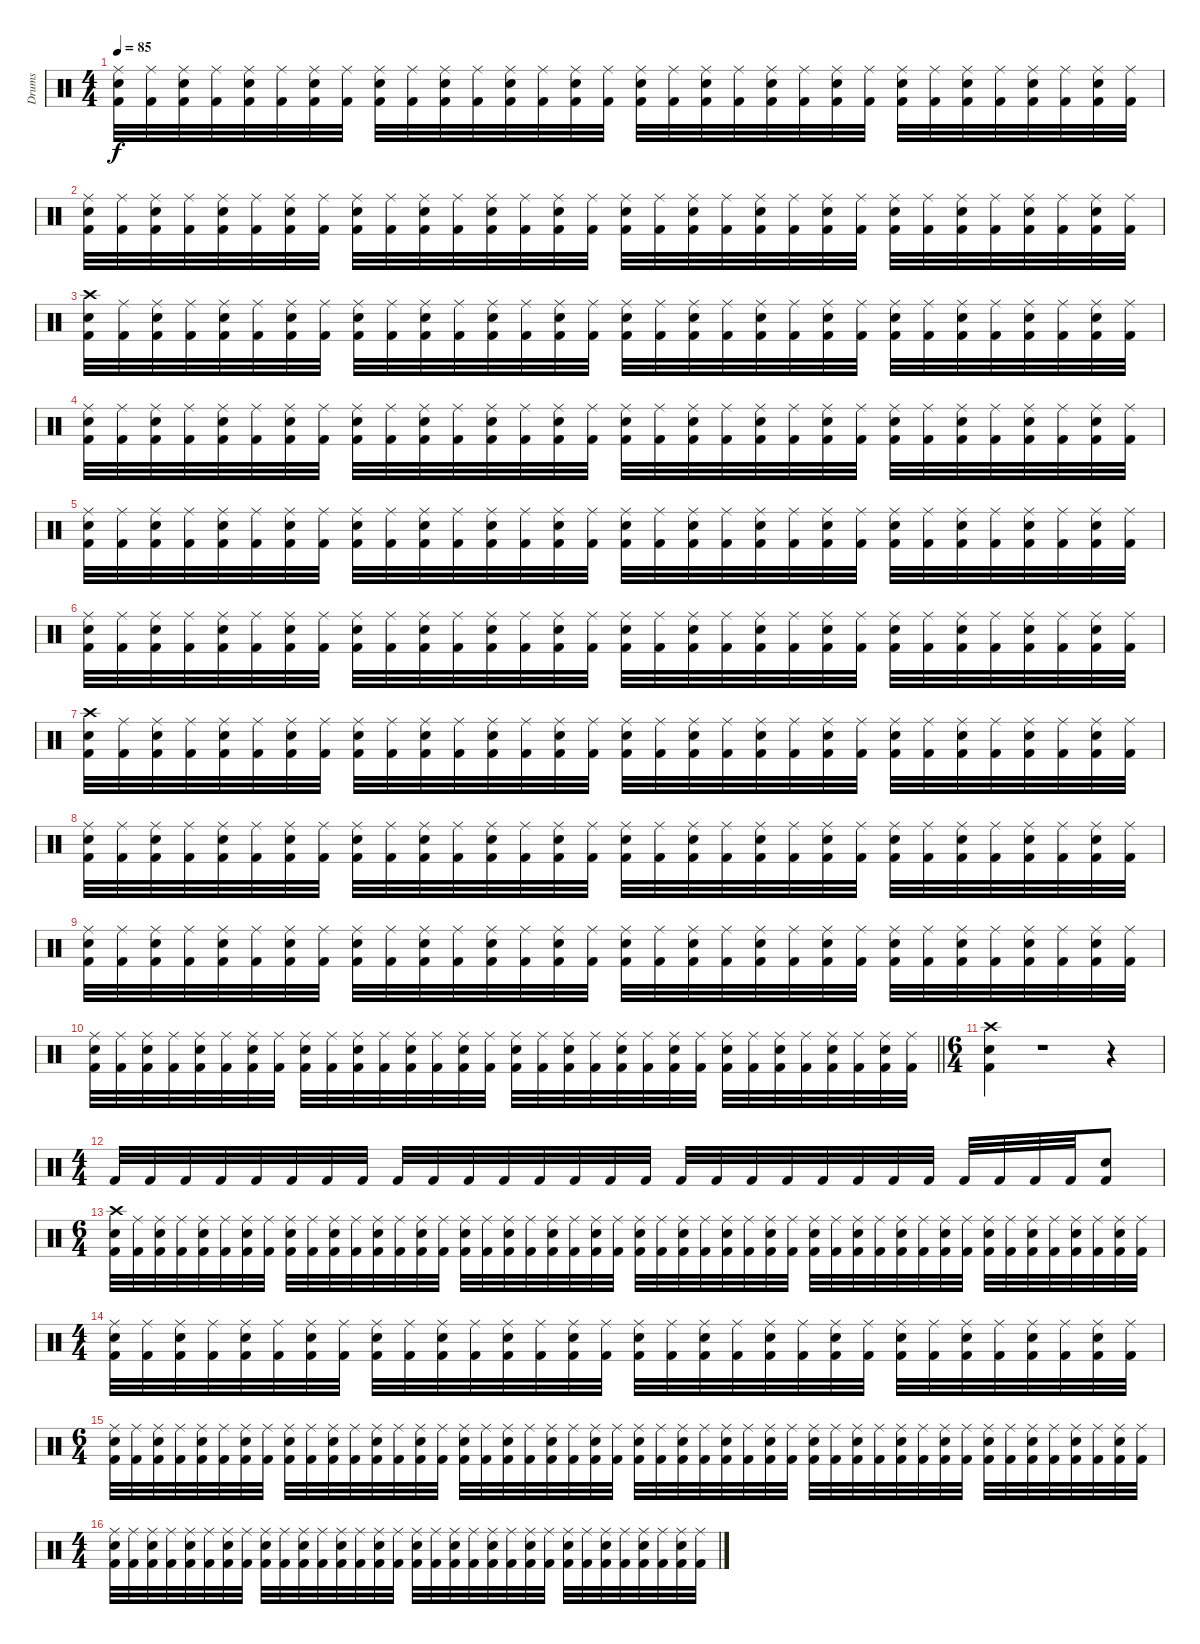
\track ("Drums" "Drums") {instrument percussion}
\staff {score}
\articulation defaults
\ts (4 4)
\tempo 85
\clef neutral
\ks c
("Ride (middle)" "Electric Snare (hit)" "Kick (hit) 2").32{dy f} ("Ride (middle)" "Kick (hit) 2").32 ("Ride (middle)" "Electric Snare (hit)" "Kick (hit) 2").32 ("Ride (middle)" "Kick (hit) 2").32 ("Ride (middle)" "Electric Snare (hit)" "Kick (hit) 2").32 ("Ride (middle)" "Kick (hit) 2").32 ("Ride (middle)" "Electric Snare (hit)" "Kick (hit) 2").32 ("Ride (middle)" "Kick (hit) 2").32 ("Ride (middle)" "Electric Snare (hit)" "Kick (hit) 2").32 ("Ride (middle)" "Kick (hit) 2").32 ("Ride (middle)" "Electric Snare (hit)" "Kick (hit) 2").32 ("Ride (middle)" "Kick (hit) 2").32 ("Ride (middle)" "Electric Snare (hit)" "Kick (hit) 2").32 ("Ride (middle)" "Kick (hit) 2").32 ("Ride (middle)" "Electric Snare (hit)" "Kick (hit) 2").32 ("Ride (middle)" "Kick (hit) 2").32 ("Ride (middle)" "Electric Snare (hit)" "Kick (hit) 2").32 ("Ride (middle)" "Kick (hit) 2").32 ("Ride (middle)" "Electric Snare (hit)" "Kick (hit) 2").32 ("Ride (middle)" "Kick (hit) 2").32 ("Ride (middle)" "Electric Snare (hit)" "Kick (hit) 2").32 ("Ride (middle)" "Kick (hit) 2").32 ("Ride (middle)" "Electric Snare (hit)" "Kick (hit) 2").32 ("Ride (middle)" "Kick (hit) 2").32 ("Ride (middle)" "Electric Snare (hit)" "Kick (hit) 2").32 ("Ride (middle)" "Kick (hit) 2").32 ("Ride (middle)" "Electric Snare (hit)" "Kick (hit) 2").32 ("Ride (middle)" "Kick (hit) 2").32 ("Ride (middle)" "Electric Snare (hit)" "Kick (hit) 2").32 ("Ride (middle)" "Kick (hit) 2").32 ("Ride (middle)" "Electric Snare (hit)" "Kick (hit) 2").32 ("Ride (middle)" "Kick (hit) 2").32 |
("Ride (middle)" "Electric Snare (hit)" "Kick (hit) 2").32 ("Ride (middle)" "Kick (hit) 2").32 ("Ride (middle)" "Electric Snare (hit)" "Kick (hit) 2").32 ("Ride (middle)" "Kick (hit) 2").32 ("Ride (middle)" "Electric Snare (hit)" "Kick (hit) 2").32 ("Ride (middle)" "Kick (hit) 2").32 ("Ride (middle)" "Electric Snare (hit)" "Kick (hit) 2").32 ("Ride (middle)" "Kick (hit) 2").32 ("Ride (middle)" "Electric Snare (hit)" "Kick (hit) 2").32 ("Ride (middle)" "Kick (hit) 2").32 ("Ride (middle)" "Electric Snare (hit)" "Kick (hit) 2").32 ("Ride (middle)" "Kick (hit) 2").32 ("Ride (middle)" "Electric Snare (hit)" "Kick (hit) 2").32 ("Ride (middle)" "Kick (hit) 2").32 ("Ride (middle)" "Electric Snare (hit)" "Kick (hit) 2").32 ("Ride (middle)" "Kick (hit) 2").32 ("Ride (middle)" "Electric Snare (hit)" "Kick (hit) 2").32 ("Ride (middle)" "Kick (hit) 2").32 ("Ride (middle)" "Electric Snare (hit)" "Kick (hit) 2").32 ("Ride (middle)" "Kick (hit) 2").32 ("Ride (middle)" "Electric Snare (hit)" "Kick (hit) 2").32 ("Ride (middle)" "Kick (hit) 2").32 ("Ride (middle)" "Electric Snare (hit)" "Kick (hit) 2").32 ("Ride (middle)" "Kick (hit) 2").32 ("Ride (middle)" "Electric Snare (hit)" "Kick (hit) 2").32 ("Ride (middle)" "Kick (hit) 2").32 ("Ride (middle)" "Electric Snare (hit)" "Kick (hit) 2").32 ("Ride (middle)" "Kick (hit) 2").32 ("Ride (middle)" "Electric Snare (hit)" "Kick (hit) 2").32 ("Ride (middle)" "Kick (hit) 2").32 ("Ride (middle)" "Electric Snare (hit)" "Kick (hit) 2").32 ("Ride (middle)" "Kick (hit) 2").32 |
("Crash high (hit)" "Electric Snare (hit)" "Kick (hit) 2").32 ("Ride (middle)" "Kick (hit) 2").32 ("Ride (middle)" "Electric Snare (hit)" "Kick (hit) 2").32 ("Ride (middle)" "Kick (hit) 2").32 ("Ride (middle)" "Electric Snare (hit)" "Kick (hit) 2").32 ("Ride (middle)" "Kick (hit) 2").32 ("Ride (middle)" "Electric Snare (hit)" "Kick (hit) 2").32 ("Ride (middle)" "Kick (hit) 2").32 ("Ride (middle)" "Electric Snare (hit)" "Kick (hit) 2").32 ("Ride (middle)" "Kick (hit) 2").32 ("Ride (middle)" "Electric Snare (hit)" "Kick (hit) 2").32 ("Ride (middle)" "Kick (hit) 2").32 ("Ride (middle)" "Electric Snare (hit)" "Kick (hit) 2").32 ("Ride (middle)" "Kick (hit) 2").32 ("Ride (middle)" "Electric Snare (hit)" "Kick (hit) 2").32 ("Ride (middle)" "Kick (hit) 2").32 ("Ride (middle)" "Electric Snare (hit)" "Kick (hit) 2").32 ("Ride (middle)" "Kick (hit) 2").32 ("Ride (middle)" "Electric Snare (hit)" "Kick (hit) 2").32 ("Ride (middle)" "Kick (hit) 2").32 ("Ride (middle)" "Electric Snare (hit)" "Kick (hit) 2").32 ("Ride (middle)" "Kick (hit) 2").32 ("Ride (middle)" "Electric Snare (hit)" "Kick (hit) 2").32 ("Ride (middle)" "Kick (hit) 2").32 ("Ride (middle)" "Electric Snare (hit)" "Kick (hit) 2").32 ("Ride (middle)" "Kick (hit) 2").32 ("Ride (middle)" "Electric Snare (hit)" "Kick (hit) 2").32 ("Ride (middle)" "Kick (hit) 2").32 ("Ride (middle)" "Electric Snare (hit)" "Kick (hit) 2").32 ("Ride (middle)" "Kick (hit) 2").32 ("Ride (middle)" "Electric Snare (hit)" "Kick (hit) 2").32 ("Ride (middle)" "Kick (hit) 2").32 |
("Ride (middle)" "Electric Snare (hit)" "Kick (hit) 2").32 ("Ride (middle)" "Kick (hit) 2").32 ("Ride (middle)" "Electric Snare (hit)" "Kick (hit) 2").32 ("Ride (middle)" "Kick (hit) 2").32 ("Ride (middle)" "Electric Snare (hit)" "Kick (hit) 2").32 ("Ride (middle)" "Kick (hit) 2").32 ("Ride (middle)" "Electric Snare (hit)" "Kick (hit) 2").32 ("Ride (middle)" "Kick (hit) 2").32 ("Ride (middle)" "Electric Snare (hit)" "Kick (hit) 2").32 ("Ride (middle)" "Kick (hit) 2").32 ("Ride (middle)" "Electric Snare (hit)" "Kick (hit) 2").32 ("Ride (middle)" "Kick (hit) 2").32 ("Ride (middle)" "Electric Snare (hit)" "Kick (hit) 2").32 ("Ride (middle)" "Kick (hit) 2").32 ("Ride (middle)" "Electric Snare (hit)" "Kick (hit) 2").32 ("Ride (middle)" "Kick (hit) 2").32 ("Ride (middle)" "Electric Snare (hit)" "Kick (hit) 2").32 ("Ride (middle)" "Kick (hit) 2").32 ("Ride (middle)" "Electric Snare (hit)" "Kick (hit) 2").32 ("Ride (middle)" "Kick (hit) 2").32 ("Ride (middle)" "Electric Snare (hit)" "Kick (hit) 2").32 ("Ride (middle)" "Kick (hit) 2").32 ("Ride (middle)" "Electric Snare (hit)" "Kick (hit) 2").32 ("Ride (middle)" "Kick (hit) 2").32 ("Ride (middle)" "Electric Snare (hit)" "Kick (hit) 2").32 ("Ride (middle)" "Kick (hit) 2").32 ("Ride (middle)" "Electric Snare (hit)" "Kick (hit) 2").32 ("Ride (middle)" "Kick (hit) 2").32 ("Ride (middle)" "Electric Snare (hit)" "Kick (hit) 2").32 ("Ride (middle)" "Kick (hit) 2").32 ("Ride (middle)" "Electric Snare (hit)" "Kick (hit) 2").32 ("Ride (middle)" "Kick (hit) 2").32 |
("Ride (middle)" "Electric Snare (hit)" "Kick (hit) 2").32 ("Ride (middle)" "Kick (hit) 2").32 ("Ride (middle)" "Electric Snare (hit)" "Kick (hit) 2").32 ("Ride (middle)" "Kick (hit) 2").32 ("Ride (middle)" "Electric Snare (hit)" "Kick (hit) 2").32 ("Ride (middle)" "Kick (hit) 2").32 ("Ride (middle)" "Electric Snare (hit)" "Kick (hit) 2").32 ("Ride (middle)" "Kick (hit) 2").32 ("Ride (middle)" "Electric Snare (hit)" "Kick (hit) 2").32 ("Ride (middle)" "Kick (hit) 2").32 ("Ride (middle)" "Electric Snare (hit)" "Kick (hit) 2").32 ("Ride (middle)" "Kick (hit) 2").32 ("Ride (middle)" "Electric Snare (hit)" "Kick (hit) 2").32 ("Ride (middle)" "Kick (hit) 2").32 ("Ride (middle)" "Electric Snare (hit)" "Kick (hit) 2").32 ("Ride (middle)" "Kick (hit) 2").32 ("Ride (middle)" "Electric Snare (hit)" "Kick (hit) 2").32 ("Ride (middle)" "Kick (hit) 2").32 ("Ride (middle)" "Electric Snare (hit)" "Kick (hit) 2").32 ("Ride (middle)" "Kick (hit) 2").32 ("Ride (middle)" "Electric Snare (hit)" "Kick (hit) 2").32 ("Ride (middle)" "Kick (hit) 2").32 ("Ride (middle)" "Electric Snare (hit)" "Kick (hit) 2").32 ("Ride (middle)" "Kick (hit) 2").32 ("Ride (middle)" "Electric Snare (hit)" "Kick (hit) 2").32 ("Ride (middle)" "Kick (hit) 2").32 ("Ride (middle)" "Electric Snare (hit)" "Kick (hit) 2").32 ("Ride (middle)" "Kick (hit) 2").32 ("Ride (middle)" "Electric Snare (hit)" "Kick (hit) 2").32 ("Ride (middle)" "Kick (hit) 2").32 ("Ride (middle)" "Electric Snare (hit)" "Kick (hit) 2").32 ("Ride (middle)" "Kick (hit) 2").32 |
("Ride (middle)" "Electric Snare (hit)" "Kick (hit) 2").32 ("Ride (middle)" "Kick (hit) 2").32 ("Ride (middle)" "Electric Snare (hit)" "Kick (hit) 2").32 ("Ride (middle)" "Kick (hit) 2").32 ("Ride (middle)" "Electric Snare (hit)" "Kick (hit) 2").32 ("Ride (middle)" "Kick (hit) 2").32 ("Ride (middle)" "Electric Snare (hit)" "Kick (hit) 2").32 ("Ride (middle)" "Kick (hit) 2").32 ("Ride (middle)" "Electric Snare (hit)" "Kick (hit) 2").32 ("Ride (middle)" "Kick (hit) 2").32 ("Ride (middle)" "Electric Snare (hit)" "Kick (hit) 2").32 ("Ride (middle)" "Kick (hit) 2").32 ("Ride (middle)" "Electric Snare (hit)" "Kick (hit) 2").32 ("Ride (middle)" "Kick (hit) 2").32 ("Ride (middle)" "Electric Snare (hit)" "Kick (hit) 2").32 ("Ride (middle)" "Kick (hit) 2").32 ("Ride (middle)" "Electric Snare (hit)" "Kick (hit) 2").32 ("Ride (middle)" "Kick (hit) 2").32 ("Ride (middle)" "Electric Snare (hit)" "Kick (hit) 2").32 ("Ride (middle)" "Kick (hit) 2").32 ("Ride (middle)" "Electric Snare (hit)" "Kick (hit) 2").32 ("Ride (middle)" "Kick (hit) 2").32 ("Ride (middle)" "Electric Snare (hit)" "Kick (hit) 2").32 ("Ride (middle)" "Kick (hit) 2").32 ("Ride (middle)" "Electric Snare (hit)" "Kick (hit) 2").32 ("Ride (middle)" "Kick (hit) 2").32 ("Ride (middle)" "Electric Snare (hit)" "Kick (hit) 2").32 ("Ride (middle)" "Kick (hit) 2").32 ("Ride (middle)" "Electric Snare (hit)" "Kick (hit) 2").32 ("Ride (middle)" "Kick (hit) 2").32 ("Ride (middle)" "Electric Snare (hit)" "Kick (hit) 2").32 ("Ride (middle)" "Kick (hit) 2").32 |
("Crash high (hit)" "Electric Snare (hit)" "Kick (hit) 2").32 ("Ride (middle)" "Kick (hit) 2").32 ("Ride (middle)" "Electric Snare (hit)" "Kick (hit) 2").32 ("Ride (middle)" "Kick (hit) 2").32 ("Ride (middle)" "Electric Snare (hit)" "Kick (hit) 2").32 ("Ride (middle)" "Kick (hit) 2").32 ("Ride (middle)" "Electric Snare (hit)" "Kick (hit) 2").32 ("Ride (middle)" "Kick (hit) 2").32 ("Ride (middle)" "Electric Snare (hit)" "Kick (hit) 2").32 ("Ride (middle)" "Kick (hit) 2").32 ("Ride (middle)" "Electric Snare (hit)" "Kick (hit) 2").32 ("Ride (middle)" "Kick (hit) 2").32 ("Ride (middle)" "Electric Snare (hit)" "Kick (hit) 2").32 ("Ride (middle)" "Kick (hit) 2").32 ("Ride (middle)" "Electric Snare (hit)" "Kick (hit) 2").32 ("Ride (middle)" "Kick (hit) 2").32 ("Ride (middle)" "Electric Snare (hit)" "Kick (hit) 2").32 ("Ride (middle)" "Kick (hit) 2").32 ("Ride (middle)" "Electric Snare (hit)" "Kick (hit) 2").32 ("Ride (middle)" "Kick (hit) 2").32 ("Ride (middle)" "Electric Snare (hit)" "Kick (hit) 2").32 ("Ride (middle)" "Kick (hit) 2").32 ("Ride (middle)" "Electric Snare (hit)" "Kick (hit) 2").32 ("Ride (middle)" "Kick (hit) 2").32 ("Ride (middle)" "Electric Snare (hit)" "Kick (hit) 2").32 ("Ride (middle)" "Kick (hit) 2").32 ("Ride (middle)" "Electric Snare (hit)" "Kick (hit) 2").32 ("Ride (middle)" "Kick (hit) 2").32 ("Ride (middle)" "Electric Snare (hit)" "Kick (hit) 2").32 ("Ride (middle)" "Kick (hit) 2").32 ("Ride (middle)" "Electric Snare (hit)" "Kick (hit) 2").32 ("Ride (middle)" "Kick (hit) 2").32 |
("Ride (middle)" "Electric Snare (hit)" "Kick (hit) 2").32 ("Ride (middle)" "Kick (hit) 2").32 ("Ride (middle)" "Electric Snare (hit)" "Kick (hit) 2").32 ("Ride (middle)" "Kick (hit) 2").32 ("Ride (middle)" "Electric Snare (hit)" "Kick (hit) 2").32 ("Ride (middle)" "Kick (hit) 2").32 ("Ride (middle)" "Electric Snare (hit)" "Kick (hit) 2").32 ("Ride (middle)" "Kick (hit) 2").32 ("Ride (middle)" "Electric Snare (hit)" "Kick (hit) 2").32 ("Ride (middle)" "Kick (hit) 2").32 ("Ride (middle)" "Electric Snare (hit)" "Kick (hit) 2").32 ("Ride (middle)" "Kick (hit) 2").32 ("Ride (middle)" "Electric Snare (hit)" "Kick (hit) 2").32 ("Ride (middle)" "Kick (hit) 2").32 ("Ride (middle)" "Electric Snare (hit)" "Kick (hit) 2").32 ("Ride (middle)" "Kick (hit) 2").32 ("Ride (middle)" "Electric Snare (hit)" "Kick (hit) 2").32 ("Ride (middle)" "Kick (hit) 2").32 ("Ride (middle)" "Electric Snare (hit)" "Kick (hit) 2").32 ("Ride (middle)" "Kick (hit) 2").32 ("Ride (middle)" "Electric Snare (hit)" "Kick (hit) 2").32 ("Ride (middle)" "Kick (hit) 2").32 ("Ride (middle)" "Electric Snare (hit)" "Kick (hit) 2").32 ("Ride (middle)" "Kick (hit) 2").32 ("Ride (middle)" "Electric Snare (hit)" "Kick (hit) 2").32 ("Ride (middle)" "Kick (hit) 2").32 ("Ride (middle)" "Electric Snare (hit)" "Kick (hit) 2").32 ("Ride (middle)" "Kick (hit) 2").32 ("Ride (middle)" "Electric Snare (hit)" "Kick (hit) 2").32 ("Ride (middle)" "Kick (hit) 2").32 ("Ride (middle)" "Electric Snare (hit)" "Kick (hit) 2").32 ("Ride (middle)" "Kick (hit) 2").32 |
("Ride (middle)" "Electric Snare (hit)" "Kick (hit) 2").32 ("Ride (middle)" "Kick (hit) 2").32 ("Ride (middle)" "Electric Snare (hit)" "Kick (hit) 2").32 ("Ride (middle)" "Kick (hit) 2").32 ("Ride (middle)" "Electric Snare (hit)" "Kick (hit) 2").32 ("Ride (middle)" "Kick (hit) 2").32 ("Ride (middle)" "Electric Snare (hit)" "Kick (hit) 2").32 ("Ride (middle)" "Kick (hit) 2").32 ("Ride (middle)" "Electric Snare (hit)" "Kick (hit) 2").32 ("Ride (middle)" "Kick (hit) 2").32 ("Ride (middle)" "Electric Snare (hit)" "Kick (hit) 2").32 ("Ride (middle)" "Kick (hit) 2").32 ("Ride (middle)" "Electric Snare (hit)" "Kick (hit) 2").32 ("Ride (middle)" "Kick (hit) 2").32 ("Ride (middle)" "Electric Snare (hit)" "Kick (hit) 2").32 ("Ride (middle)" "Kick (hit) 2").32 ("Ride (middle)" "Electric Snare (hit)" "Kick (hit) 2").32 ("Ride (middle)" "Kick (hit) 2").32 ("Ride (middle)" "Electric Snare (hit)" "Kick (hit) 2").32 ("Ride (middle)" "Kick (hit) 2").32 ("Ride (middle)" "Electric Snare (hit)" "Kick (hit) 2").32 ("Ride (middle)" "Kick (hit) 2").32 ("Ride (middle)" "Electric Snare (hit)" "Kick (hit) 2").32 ("Ride (middle)" "Kick (hit) 2").32 ("Ride (middle)" "Electric Snare (hit)" "Kick (hit) 2").32 ("Ride (middle)" "Kick (hit) 2").32 ("Ride (middle)" "Electric Snare (hit)" "Kick (hit) 2").32 ("Ride (middle)" "Kick (hit) 2").32 ("Ride (middle)" "Electric Snare (hit)" "Kick (hit) 2").32 ("Ride (middle)" "Kick (hit) 2").32 ("Ride (middle)" "Electric Snare (hit)" "Kick (hit) 2").32 ("Ride (middle)" "Kick (hit) 2").32 |
\barLineRight lightlight
("Ride (middle)" "Electric Snare (hit)" "Kick (hit) 2").32 ("Ride (middle)" "Kick (hit) 2").32 ("Ride (middle)" "Electric Snare (hit)" "Kick (hit) 2").32 ("Ride (middle)" "Kick (hit) 2").32 ("Ride (middle)" "Electric Snare (hit)" "Kick (hit) 2").32 ("Ride (middle)" "Kick (hit) 2").32 ("Ride (middle)" "Electric Snare (hit)" "Kick (hit) 2").32 ("Ride (middle)" "Kick (hit) 2").32 ("Ride (middle)" "Electric Snare (hit)" "Kick (hit) 2").32 ("Ride (middle)" "Kick (hit) 2").32 ("Ride (middle)" "Electric Snare (hit)" "Kick (hit) 2").32 ("Ride (middle)" "Kick (hit) 2").32 ("Ride (middle)" "Electric Snare (hit)" "Kick (hit) 2").32 ("Ride (middle)" "Kick (hit) 2").32 ("Ride (middle)" "Electric Snare (hit)" "Kick (hit) 2").32 ("Ride (middle)" "Kick (hit) 2").32 ("Ride (middle)" "Electric Snare (hit)" "Kick (hit) 2").32 ("Ride (middle)" "Kick (hit) 2").32 ("Ride (middle)" "Electric Snare (hit)" "Kick (hit) 2").32 ("Ride (middle)" "Kick (hit) 2").32 ("Ride (middle)" "Electric Snare (hit)" "Kick (hit) 2").32 ("Ride (middle)" "Kick (hit) 2").32 ("Ride (middle)" "Electric Snare (hit)" "Kick (hit) 2").32 ("Ride (middle)" "Kick (hit) 2").32 ("Ride (middle)" "Electric Snare (hit)" "Kick (hit) 2").32 ("Ride (middle)" "Kick (hit) 2").32 ("Ride (middle)" "Electric Snare (hit)" "Kick (hit) 2").32 ("Ride (middle)" "Kick (hit) 2").32 ("Ride (middle)" "Electric Snare (hit)" "Kick (hit) 2").32 ("Ride (middle)" "Kick (hit) 2").32 ("Ride (middle)" "Electric Snare (hit)" "Kick (hit) 2").32 ("Ride (middle)" "Kick (hit) 2").32 |
\ts (6 4)
("Crash high (hit)" "Electric Snare (hit)" "Kick (hit) 2").4 r.1 r.4 |
\ts (4 4)
"Kick (hit) 2".32 "Kick (hit) 2".32 "Kick (hit) 2".32 "Kick (hit) 2".32 "Kick (hit) 2".32 "Kick (hit) 2".32 "Kick (hit) 2".32 "Kick (hit) 2".32 "Kick (hit) 2".32 "Kick (hit) 2".32 "Kick (hit) 2".32 "Kick (hit) 2".32 "Kick (hit) 2".32 "Kick (hit) 2".32 "Kick (hit) 2".32 "Kick (hit) 2".32 "Kick (hit) 2".32 "Kick (hit) 2".32 "Kick (hit) 2".32 "Kick (hit) 2".32 "Kick (hit) 2".32 "Kick (hit) 2".32 "Kick (hit) 2".32 "Kick (hit) 2".32 "Kick (hit) 2".32 "Kick (hit) 2".32 "Kick (hit) 2".32 "Kick (hit) 2".32 ("Electric Snare (hit)" "Kick (hit) 2").8 |
\ts (6 4)
("Crash high (hit)" "Electric Snare (hit)" "Kick (hit) 2").32 ("Ride (middle)" "Kick (hit) 2").32 ("Ride (middle)" "Electric Snare (hit)" "Kick (hit) 2").32 ("Ride (middle)" "Kick (hit) 2").32 ("Ride (middle)" "Electric Snare (hit)" "Kick (hit) 2").32 ("Ride (middle)" "Kick (hit) 2").32 ("Ride (middle)" "Electric Snare (hit)" "Kick (hit) 2").32 ("Ride (middle)" "Kick (hit) 2").32 ("Ride (middle)" "Electric Snare (hit)" "Kick (hit) 2").32 ("Ride (middle)" "Kick (hit) 2").32 ("Ride (middle)" "Electric Snare (hit)" "Kick (hit) 2").32 ("Ride (middle)" "Kick (hit) 2").32 ("Ride (middle)" "Electric Snare (hit)" "Kick (hit) 2").32 ("Ride (middle)" "Kick (hit) 2").32 ("Ride (middle)" "Electric Snare (hit)" "Kick (hit) 2").32 ("Ride (middle)" "Kick (hit) 2").32 ("Ride (middle)" "Electric Snare (hit)" "Kick (hit) 2").32 ("Ride (middle)" "Kick (hit) 2").32 ("Ride (middle)" "Electric Snare (hit)" "Kick (hit) 2").32 ("Ride (middle)" "Kick (hit) 2").32 ("Ride (middle)" "Electric Snare (hit)" "Kick (hit) 2").32 ("Ride (middle)" "Kick (hit) 2").32 ("Ride (middle)" "Electric Snare (hit)" "Kick (hit) 2").32 ("Ride (middle)" "Kick (hit) 2").32 ("Ride (middle)" "Electric Snare (hit)" "Kick (hit) 2").32 ("Ride (middle)" "Kick (hit) 2").32 ("Ride (middle)" "Electric Snare (hit)" "Kick (hit) 2").32 ("Ride (middle)" "Kick (hit) 2").32 ("Ride (middle)" "Electric Snare (hit)" "Kick (hit) 2").32 ("Ride (middle)" "Kick (hit) 2").32 ("Ride (middle)" "Electric Snare (hit)" "Kick (hit) 2").32 ("Ride (middle)" "Kick (hit) 2").32 ("Ride (middle)" "Electric Snare (hit)" "Kick (hit) 2").32 ("Ride (middle)" "Kick (hit) 2").32 ("Ride (middle)" "Electric Snare (hit)" "Kick (hit) 2").32 ("Ride (middle)" "Kick (hit) 2").32 ("Ride (middle)" "Electric Snare (hit)" "Kick (hit) 2").32 ("Ride (middle)" "Kick (hit) 2").32 ("Ride (middle)" "Electric Snare (hit)" "Kick (hit) 2").32 ("Ride (middle)" "Kick (hit) 2").32 ("Ride (middle)" "Electric Snare (hit)" "Kick (hit) 2").32 ("Ride (middle)" "Kick (hit) 2").32 ("Ride (middle)" "Electric Snare (hit)" "Kick (hit) 2").32 ("Ride (middle)" "Kick (hit) 2").32 ("Ride (middle)" "Electric Snare (hit)" "Kick (hit) 2").32 ("Ride (middle)" "Kick (hit) 2").32 ("Ride (middle)" "Electric Snare (hit)" "Kick (hit) 2").32 ("Ride (middle)" "Kick (hit) 2").32 |
\ts (4 4)
("Ride (middle)" "Electric Snare (hit)" "Kick (hit) 2").32 ("Ride (middle)" "Kick (hit) 2").32 ("Ride (middle)" "Electric Snare (hit)" "Kick (hit) 2").32 ("Ride (middle)" "Kick (hit) 2").32 ("Ride (middle)" "Electric Snare (hit)" "Kick (hit) 2").32 ("Ride (middle)" "Kick (hit) 2").32 ("Ride (middle)" "Electric Snare (hit)" "Kick (hit) 2").32 ("Ride (middle)" "Kick (hit) 2").32 ("Ride (middle)" "Electric Snare (hit)" "Kick (hit) 2").32 ("Ride (middle)" "Kick (hit) 2").32 ("Ride (middle)" "Electric Snare (hit)" "Kick (hit) 2").32 ("Ride (middle)" "Kick (hit) 2").32 ("Ride (middle)" "Electric Snare (hit)" "Kick (hit) 2").32 ("Ride (middle)" "Kick (hit) 2").32 ("Ride (middle)" "Electric Snare (hit)" "Kick (hit) 2").32 ("Ride (middle)" "Kick (hit) 2").32 ("Ride (middle)" "Electric Snare (hit)" "Kick (hit) 2").32 ("Ride (middle)" "Kick (hit) 2").32 ("Ride (middle)" "Electric Snare (hit)" "Kick (hit) 2").32 ("Ride (middle)" "Kick (hit) 2").32 ("Ride (middle)" "Electric Snare (hit)" "Kick (hit) 2").32 ("Ride (middle)" "Kick (hit) 2").32 ("Ride (middle)" "Electric Snare (hit)" "Kick (hit) 2").32 ("Ride (middle)" "Kick (hit) 2").32 ("Ride (middle)" "Electric Snare (hit)" "Kick (hit) 2").32 ("Ride (middle)" "Kick (hit) 2").32 ("Ride (middle)" "Electric Snare (hit)" "Kick (hit) 2").32 ("Ride (middle)" "Kick (hit) 2").32 ("Ride (middle)" "Electric Snare (hit)" "Kick (hit) 2").32 ("Ride (middle)" "Kick (hit) 2").32 ("Ride (middle)" "Electric Snare (hit)" "Kick (hit) 2").32 ("Ride (middle)" "Kick (hit) 2").32 |
\ts (6 4)
("Ride (middle)" "Electric Snare (hit)" "Kick (hit) 2").32 ("Ride (middle)" "Kick (hit) 2").32 ("Ride (middle)" "Electric Snare (hit)" "Kick (hit) 2").32 ("Ride (middle)" "Kick (hit) 2").32 ("Ride (middle)" "Electric Snare (hit)" "Kick (hit) 2").32 ("Ride (middle)" "Kick (hit) 2").32 ("Ride (middle)" "Electric Snare (hit)" "Kick (hit) 2").32 ("Ride (middle)" "Kick (hit) 2").32 ("Ride (middle)" "Electric Snare (hit)" "Kick (hit) 2").32 ("Ride (middle)" "Kick (hit) 2").32 ("Ride (middle)" "Electric Snare (hit)" "Kick (hit) 2").32 ("Ride (middle)" "Kick (hit) 2").32 ("Ride (middle)" "Electric Snare (hit)" "Kick (hit) 2").32 ("Ride (middle)" "Kick (hit) 2").32 ("Ride (middle)" "Electric Snare (hit)" "Kick (hit) 2").32 ("Ride (middle)" "Kick (hit) 2").32 ("Ride (middle)" "Electric Snare (hit)" "Kick (hit) 2").32 ("Ride (middle)" "Kick (hit) 2").32 ("Ride (middle)" "Electric Snare (hit)" "Kick (hit) 2").32 ("Ride (middle)" "Kick (hit) 2").32 ("Ride (middle)" "Electric Snare (hit)" "Kick (hit) 2").32 ("Ride (middle)" "Kick (hit) 2").32 ("Ride (middle)" "Electric Snare (hit)" "Kick (hit) 2").32 ("Ride (middle)" "Kick (hit) 2").32 ("Ride (middle)" "Electric Snare (hit)" "Kick (hit) 2").32 ("Ride (middle)" "Kick (hit) 2").32 ("Ride (middle)" "Electric Snare (hit)" "Kick (hit) 2").32 ("Ride (middle)" "Kick (hit) 2").32 ("Ride (middle)" "Electric Snare (hit)" "Kick (hit) 2").32 ("Ride (middle)" "Kick (hit) 2").32 ("Ride (middle)" "Electric Snare (hit)" "Kick (hit) 2").32 ("Ride (middle)" "Kick (hit) 2").32 ("Ride (middle)" "Electric Snare (hit)" "Kick (hit) 2").32 ("Ride (middle)" "Kick (hit) 2").32 ("Ride (middle)" "Electric Snare (hit)" "Kick (hit) 2").32 ("Ride (middle)" "Kick (hit) 2").32 ("Ride (middle)" "Electric Snare (hit)" "Kick (hit) 2").32 ("Ride (middle)" "Kick (hit) 2").32 ("Ride (middle)" "Electric Snare (hit)" "Kick (hit) 2").32 ("Ride (middle)" "Kick (hit) 2").32 ("Ride (middle)" "Electric Snare (hit)" "Kick (hit) 2").32 ("Ride (middle)" "Kick (hit) 2").32 ("Ride (middle)" "Electric Snare (hit)" "Kick (hit) 2").32 ("Ride (middle)" "Kick (hit) 2").32 ("Ride (middle)" "Electric Snare (hit)" "Kick (hit) 2").32 ("Ride (middle)" "Kick (hit) 2").32 ("Ride (middle)" "Electric Snare (hit)" "Kick (hit) 2").32 ("Ride (middle)" "Kick (hit) 2").32 |
\ts (4 4)
("Ride (middle)" "Electric Snare (hit)" "Kick (hit) 2").32 ("Ride (middle)" "Kick (hit) 2").32 ("Ride (middle)" "Electric Snare (hit)" "Kick (hit) 2").32 ("Ride (middle)" "Kick (hit) 2").32 ("Ride (middle)" "Electric Snare (hit)" "Kick (hit) 2").32 ("Ride (middle)" "Kick (hit) 2").32 ("Ride (middle)" "Electric Snare (hit)" "Kick (hit) 2").32 ("Ride (middle)" "Kick (hit) 2").32 ("Ride (middle)" "Electric Snare (hit)" "Kick (hit) 2").32 ("Ride (middle)" "Kick (hit) 2").32 ("Ride (middle)" "Electric Snare (hit)" "Kick (hit) 2").32 ("Ride (middle)" "Kick (hit) 2").32 ("Ride (middle)" "Electric Snare (hit)" "Kick (hit) 2").32 ("Ride (middle)" "Kick (hit) 2").32 ("Ride (middle)" "Electric Snare (hit)" "Kick (hit) 2").32 ("Ride (middle)" "Kick (hit) 2").32 ("Ride (middle)" "Electric Snare (hit)" "Kick (hit) 2").32 ("Ride (middle)" "Kick (hit) 2").32 ("Ride (middle)" "Electric Snare (hit)" "Kick (hit) 2").32 ("Ride (middle)" "Kick (hit) 2").32 ("Ride (middle)" "Electric Snare (hit)" "Kick (hit) 2").32 ("Ride (middle)" "Kick (hit) 2").32 ("Ride (middle)" "Electric Snare (hit)" "Kick (hit) 2").32 ("Ride (middle)" "Kick (hit) 2").32 ("Ride (middle)" "Electric Snare (hit)" "Kick (hit) 2").32 ("Ride (middle)" "Kick (hit) 2").32 ("Ride (middle)" "Electric Snare (hit)" "Kick (hit) 2").32 ("Ride (middle)" "Kick (hit) 2").32 ("Ride (middle)" "Electric Snare (hit)" "Kick (hit) 2").32 ("Ride (middle)" "Kick (hit) 2").32 ("Ride (middle)" "Electric Snare (hit)" "Kick (hit) 2").32 ("Ride (middle)" "Kick (hit) 2").32
